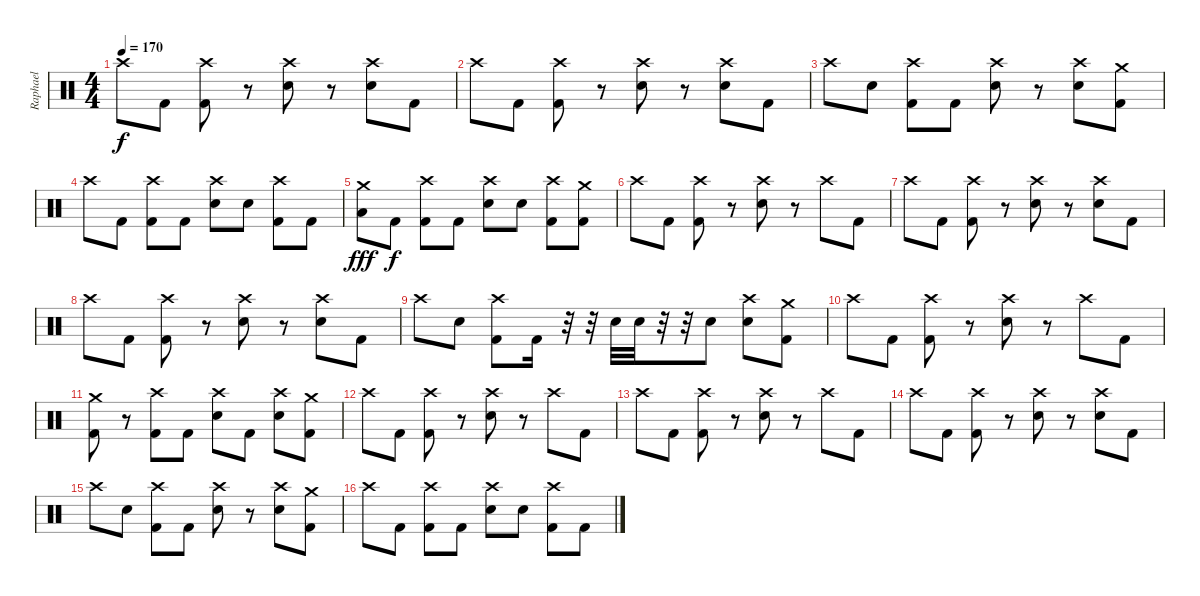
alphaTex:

\track ("Raphael" "Raphael") {instrument percussion}
\staff {score}
\articulation defaults
\ts (4 4)
\tempo 170
\clef neutral
\ks c "Crash high (hit)".8{dy f} "Kick (hit) 2".8
("Kick (hit) 2" "Crash high (hit)").8 r.8 ("Snare (hit) 2" "Crash high (hit)").8 r.8 ("Snare (hit) 2" "Crash high (hit)").8 "Kick (hit) 2".8 |
"Crash high (hit)".8 "Kick (hit) 2".8 ("Kick (hit) 2" "Crash high (hit)").8 r.8 ("Snare (hit) 2" "Crash high (hit)").8 r.8 ("Snare (hit) 2" "Crash high (hit)").8 "Kick (hit) 2".8 |
"Crash high (hit)".8 "Snare (hit) 2".8 ("Kick (hit) 2" "Crash high (hit)").8 "Kick (hit) 2".8 ("Snare (hit) 2" "Crash high (hit)").8 r.8 ("Snare (hit) 2" "Crash high (hit)").8 ("Kick (hit) 2" "Crash medium (hit)").8 |
"Crash high (hit)".8 "Kick (hit) 2".8 ("Kick (hit) 2" "Crash high (hit)").8 "Kick (hit) 2".8 ("Snare (hit) 2" "Crash high (hit)").8 "Snare (hit) 2".8 ("Kick (hit) 2" "Crash high (hit)").8 "Kick (hit) 2".8 |
("Low Tom (hit)" "Crash medium (hit)").8{dy fff} "Kick (hit) 2".8{dy f} ("Kick (hit) 2" "Crash high (hit)").8 "Kick (hit) 2".8 ("Snare (hit) 2" "Crash high (hit)").8 "Snare (hit) 2".8 ("Kick (hit) 2" "Crash high (hit)").8 ("Kick (hit) 2" "Crash medium (hit)").8 |
"Crash high (hit)".8 "Kick (hit) 2".8 ("Kick (hit) 2" "Crash high (hit)").8 r.8 ("Snare (hit) 2" "Crash high (hit)").8 r.8 "Crash high (hit)".8 "Kick (hit) 2".8 |
"Crash high (hit)".8 "Kick (hit) 2".8 ("Kick (hit) 2" "Crash high (hit)").8 r.8 ("Snare (hit) 2" "Crash high (hit)").8 r.8 ("Snare (hit) 2" "Crash high (hit)").8 "Kick (hit) 2".8 |
"Crash high (hit)".8 "Kick (hit) 2".8 ("Kick (hit) 2" "Crash high (hit)").8 r.8 ("Snare (hit) 2" "Crash high (hit)").8 r.8 ("Snare (hit) 2" "Crash high (hit)").8 "Kick (hit) 2".8 |
"Crash high (hit)".8 "Snare (hit) 2".8 ("Kick (hit) 2" "Crash high (hit)").8 "Kick (hit) 2".16 r.32 r.32 "Snare (hit) 2".32 "Snare (hit) 2".32 r.32 r.32 "Snare (hit) 2".8 ("Snare (hit) 2" "Crash high (hit)").8 ("Kick (hit) 2" "Crash medium (hit)").8 |
"Crash high (hit)".8 "Kick (hit) 2".8 ("Kick (hit) 2" "Crash high (hit)").8 r.8 ("Snare (hit) 2" "Crash high (hit)").8 r.8 "Crash high (hit)".8 "Kick (hit) 2".8 |
("Kick (hit) 2" "Crash medium (hit)").8 r.8 ("Kick (hit) 2" "Crash high (hit)").8 "Kick (hit) 2".8 ("Snare (hit) 2" "Crash high (hit)").8 "Kick (hit) 2".8 ("Snare (hit) 2" "Crash high (hit)").8 ("Kick (hit) 2" "Crash medium (hit)").8 |
"Crash high (hit)".8 "Kick (hit) 2".8 ("Kick (hit) 2" "Crash high (hit)").8 r.8 ("Snare (hit) 2" "Crash high (hit)").8 r.8 "Crash high (hit)".8 "Kick (hit) 2".8 |
"Crash high (hit)".8 "Kick (hit) 2".8 ("Kick (hit) 2" "Crash high (hit)").8 r.8 ("Snare (hit) 2" "Crash high (hit)").8 r.8 "Crash high (hit)".8 "Kick (hit) 2".8 |
"Crash high (hit)".8 "Kick (hit) 2".8 ("Kick (hit) 2" "Crash high (hit)").8 r.8 ("Snare (hit) 2" "Crash high (hit)").8 r.8 ("Snare (hit) 2" "Crash high (hit)").8 "Kick (hit) 2".8 |
"Crash high (hit)".8 "Snare (hit) 2".8 ("Kick (hit) 2" "Crash high (hit)").8 "Kick (hit) 2".8 ("Snare (hit) 2" "Crash high (hit)").8 r.8 ("Snare (hit) 2" "Crash high (hit)").8 ("Kick (hit) 2" "Crash medium (hit)").8 |
"Crash high (hit)".8 "Kick (hit) 2".8 ("Kick (hit) 2" "Crash high (hit)").8 "Kick (hit) 2".8 ("Snare (hit) 2" "Crash high (hit)").8 "Snare (hit) 2".8 ("Kick (hit) 2" "Crash high (hit)").8 "Kick (hit) 2".8
